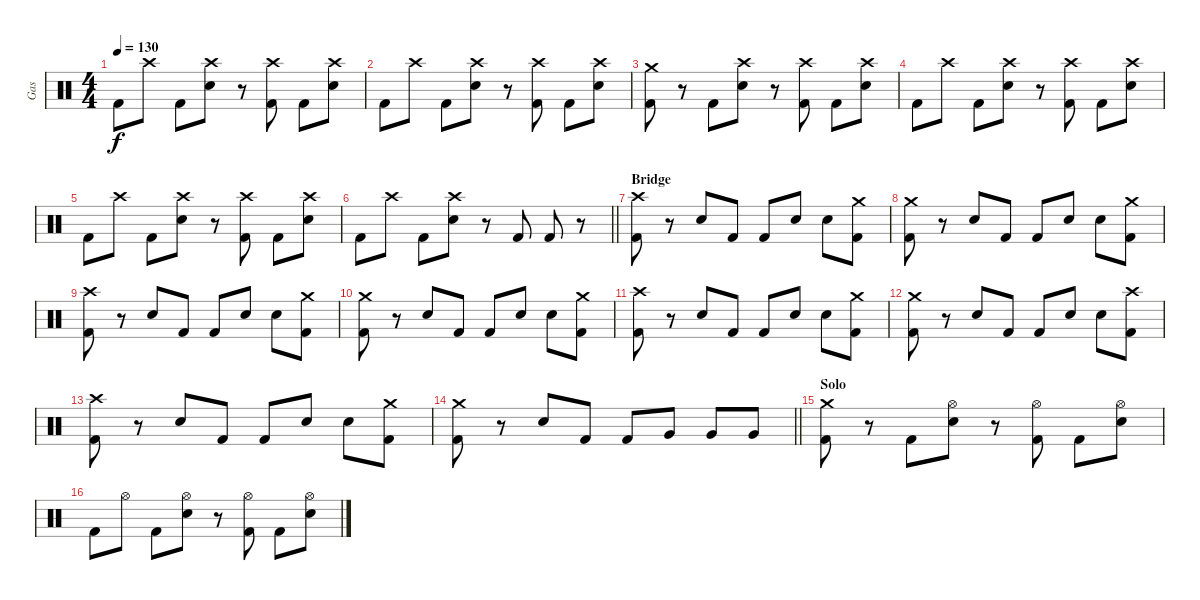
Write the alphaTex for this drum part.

\track ("Gas" "Gas") {instrument percussion}
\staff {score}
\articulation defaults
\ts (4 4)
\tempo 130
\clef neutral
\ks c "Kick (hit) 2".8{dy f} "Crash high (hit)".8 "Kick (hit) 2".8
("Crash high (hit)" "Electric Snare (hit)").8 r.8 ("Crash high (hit)" "Kick (hit) 2").8 "Kick (hit) 2".8 ("Crash high (hit)" "Electric Snare (hit)").8 |
"Kick (hit) 2".8 "Crash high (hit)".8 "Kick (hit) 2".8 ("Electric Snare (hit)" "Crash high (hit)").8 r.8 ("Kick (hit) 2" "Crash high (hit)").8 "Kick (hit) 2".8 ("Electric Snare (hit)" "Crash high (hit)").8 |
("Crash medium (hit)" "Kick (hit) 2").8 r.8 "Kick (hit) 2".8 ("Crash high (hit)" "Electric Snare (hit)").8 r.8 ("Crash high (hit)" "Kick (hit) 2").8 "Kick (hit) 2".8 ("Crash high (hit)" "Electric Snare (hit)").8 |
"Kick (hit) 2".8 "Crash high (hit)".8 "Kick (hit) 2".8 ("Electric Snare (hit)" "Crash high (hit)").8 r.8 ("Kick (hit) 2" "Crash high (hit)").8 "Kick (hit) 2".8 ("Electric Snare (hit)" "Crash high (hit)").8 |
"Kick (hit) 2".8 "Crash high (hit)".8 "Kick (hit) 2".8 ("Crash high (hit)" "Electric Snare (hit)").8 r.8 ("Crash high (hit)" "Kick (hit) 2").8 "Kick (hit) 2".8 ("Crash high (hit)" "Electric Snare (hit)").8 |
\barLineRight lightlight "Kick (hit) 2".8 "Crash high (hit)".8 "Kick (hit) 2".8
("Electric Snare (hit)" "Crash high (hit)").8 r.8 "Kick (hit) 2".8 "Kick (hit) 2".8 r.8 |
\section ("" "Bridge")
("Crash high (hit)" "Kick (hit) 2").8 r.8 "Electric Snare (hit)".8 "Kick (hit) 2".8 "Kick (hit) 2".8 "Electric Snare (hit)".8 "Electric Snare (hit)".8 ("Crash medium (hit)" "Kick (hit) 2").8 |
("Crash medium (hit)" "Kick (hit) 2").8 r.8 "Electric Snare (hit)".8 "Kick (hit) 2".8 "Kick (hit) 2".8 "Electric Snare (hit)".8 "Electric Snare (hit)".8 ("Crash medium (hit)" "Kick (hit) 2").8 |
("Crash high (hit)" "Kick (hit) 2").8 r.8 "Electric Snare (hit)".8 "Kick (hit) 2".8 "Kick (hit) 2".8 "Electric Snare (hit)".8 "Electric Snare (hit)".8 ("Crash medium (hit)" "Kick (hit) 2").8 |
("Crash medium (hit)" "Kick (hit) 2").8 r.8 "Electric Snare (hit)".8 "Kick (hit) 2".8 "Kick (hit) 2".8 "Electric Snare (hit)".8 "Electric Snare (hit)".8 ("Crash medium (hit)" "Kick (hit) 2").8 |
("Crash high (hit)" "Kick (hit) 2").8 r.8 "Electric Snare (hit)".8 "Kick (hit) 2".8 "Kick (hit) 2".8 "Electric Snare (hit)".8 "Electric Snare (hit)".8 ("Crash medium (hit)" "Kick (hit) 2").8 |
("Crash medium (hit)" "Kick (hit) 2").8 r.8 "Electric Snare (hit)".8 "Kick (hit) 2".8 "Kick (hit) 2".8 "Electric Snare (hit)".8 "Electric Snare (hit)".8 ("Crash high (hit)" "Kick (hit) 2").8 |
("Crash high (hit)" "Kick (hit) 2").8 r.8 "Electric Snare (hit)".8 "Kick (hit) 2".8 "Kick (hit) 2".8 "Electric Snare (hit)".8 "Electric Snare (hit)".8 ("Crash medium (hit)" "Kick (hit) 2").8 |
\barLineRight lightlight
("Crash medium (hit)" "Kick (hit) 2").8 r.8 "Electric Snare (hit)".8 "Kick (hit) 2".8 "Kick (hit) 2".8 "Very Low Tom (hit)".8 "Very Low Tom (hit)".8 "Very Low Tom (hit)".8 |
\section ("" "Solo")
("Crash medium (hit)" "Kick (hit) 2").8 r.8 "Kick (hit) 2".8 ("Hi-Hat (open)" "Electric Snare (hit)").8 r.8 ("Hi-Hat (open)" "Kick (hit) 2").8 "Kick (hit) 2".8 ("Hi-Hat (open)" "Electric Snare (hit)").8 |
"Kick (hit) 2".8 "Hi-Hat (open)".8 "Kick (hit) 2".8 ("Electric Snare (hit)" "Hi-Hat (open)").8 r.8 ("Kick (hit) 2" "Hi-Hat (open)").8 "Kick (hit) 2".8 ("Electric Snare (hit)" "Hi-Hat (open)").8
